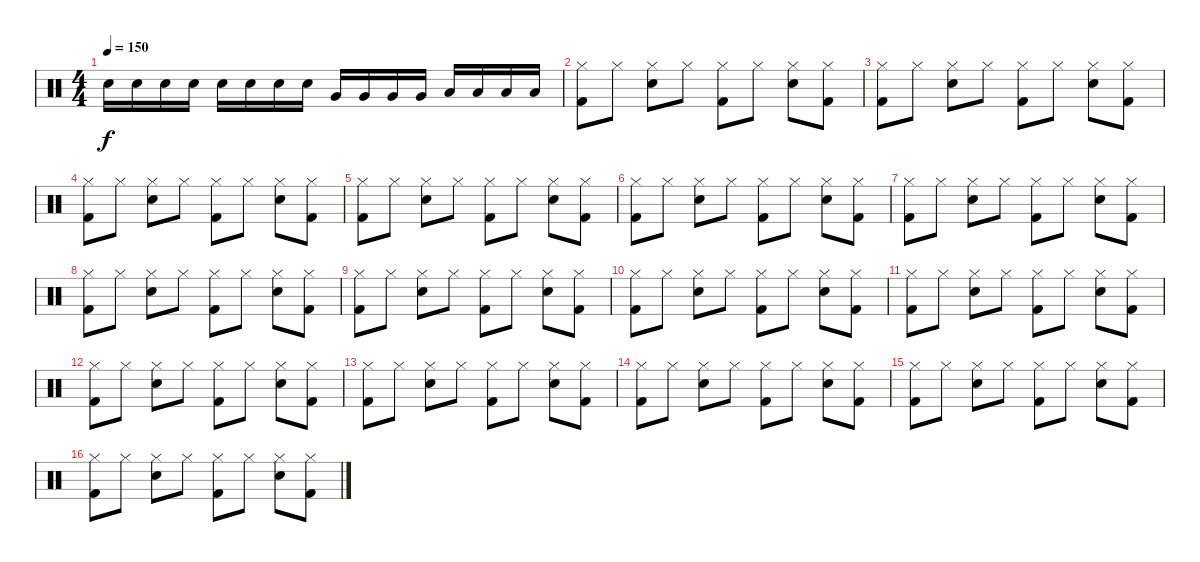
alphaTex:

\track "" {instrument percussion}
\staff {score}
\articulation defaults
\ts (4 4)
\tempo 150
\clef neutral
\ks c "Snare (hit) 2".16{dy f} "Snare (hit) 2".16 "Snare (hit) 2".16 "Snare (hit) 2".16 "Snare (hit) 2".16 "Snare (hit) 2".16 "Snare (hit) 2".16 "Snare (hit) 2".16 "Very Low Tom (hit)".16 "Very Low Tom (hit)".16 "Very Low Tom (hit)".16 "Very Low Tom (hit)".16 "Low Tom (hit)".16 "Low Tom (hit)".16 "Low Tom (hit)".16 "Low Tom (hit)".16
|
("Hi-Hat (closed)" "Kick (hit) 2").8 "Hi-Hat (closed)".8 ("Hi-Hat (closed)" "Snare (hit) 2").8 "Hi-Hat (closed)".8 ("Hi-Hat (closed)" "Kick (hit) 2").8 "Hi-Hat (closed)".8 ("Hi-Hat (closed)" "Snare (hit) 2").8 ("Hi-Hat (closed)" "Kick (hit) 2").8 |
("Hi-Hat (closed)" "Kick (hit) 2").8 "Hi-Hat (closed)".8 ("Hi-Hat (closed)" "Snare (hit) 2").8 "Hi-Hat (closed)".8 ("Hi-Hat (closed)" "Kick (hit) 2").8 "Hi-Hat (closed)".8 ("Hi-Hat (closed)" "Snare (hit) 2").8 ("Hi-Hat (closed)" "Kick (hit) 2").8 |
("Hi-Hat (closed)" "Kick (hit) 2").8 "Hi-Hat (closed)".8 ("Hi-Hat (closed)" "Snare (hit) 2").8 "Hi-Hat (closed)".8 ("Hi-Hat (closed)" "Kick (hit) 2").8 "Hi-Hat (closed)".8 ("Hi-Hat (closed)" "Snare (hit) 2").8 ("Hi-Hat (closed)" "Kick (hit) 2").8 |
("Hi-Hat (closed)" "Kick (hit) 2").8 "Hi-Hat (closed)".8 ("Hi-Hat (closed)" "Snare (hit) 2").8 "Hi-Hat (closed)".8 ("Hi-Hat (closed)" "Kick (hit) 2").8 "Hi-Hat (closed)".8 ("Hi-Hat (closed)" "Snare (hit) 2").8 ("Hi-Hat (closed)" "Kick (hit) 2").8 |
("Hi-Hat (closed)" "Kick (hit) 2").8 "Hi-Hat (closed)".8 ("Hi-Hat (closed)" "Snare (hit) 2").8 "Hi-Hat (closed)".8 ("Hi-Hat (closed)" "Kick (hit) 2").8 "Hi-Hat (closed)".8 ("Hi-Hat (closed)" "Snare (hit) 2").8 ("Hi-Hat (closed)" "Kick (hit) 2").8 |
("Hi-Hat (closed)" "Kick (hit) 2").8 "Hi-Hat (closed)".8 ("Hi-Hat (closed)" "Snare (hit) 2").8 "Hi-Hat (closed)".8 ("Hi-Hat (closed)" "Kick (hit) 2").8 "Hi-Hat (closed)".8 ("Hi-Hat (closed)" "Snare (hit) 2").8 ("Hi-Hat (closed)" "Kick (hit) 2").8 |
("Hi-Hat (closed)" "Kick (hit) 2").8 "Hi-Hat (closed)".8 ("Hi-Hat (closed)" "Snare (hit) 2").8 "Hi-Hat (closed)".8 ("Hi-Hat (closed)" "Kick (hit) 2").8 "Hi-Hat (closed)".8 ("Hi-Hat (closed)" "Snare (hit) 2").8 ("Hi-Hat (closed)" "Kick (hit) 2").8 |
("Hi-Hat (closed)" "Kick (hit) 2").8 "Hi-Hat (closed)".8 ("Hi-Hat (closed)" "Snare (hit) 2").8 "Hi-Hat (closed)".8 ("Hi-Hat (closed)" "Kick (hit) 2").8 "Hi-Hat (closed)".8 ("Hi-Hat (closed)" "Snare (hit) 2").8 ("Hi-Hat (closed)" "Kick (hit) 2").8 |
("Hi-Hat (closed)" "Kick (hit) 2").8 "Hi-Hat (closed)".8 ("Hi-Hat (closed)" "Snare (hit) 2").8 "Hi-Hat (closed)".8 ("Hi-Hat (closed)" "Kick (hit) 2").8 "Hi-Hat (closed)".8 ("Hi-Hat (closed)" "Snare (hit) 2").8 ("Hi-Hat (closed)" "Kick (hit) 2").8 |
("Hi-Hat (closed)" "Kick (hit) 2").8 "Hi-Hat (closed)".8 ("Hi-Hat (closed)" "Snare (hit) 2").8 "Hi-Hat (closed)".8 ("Hi-Hat (closed)" "Kick (hit) 2").8 "Hi-Hat (closed)".8 ("Hi-Hat (closed)" "Snare (hit) 2").8 ("Hi-Hat (closed)" "Kick (hit) 2").8 |
("Hi-Hat (closed)" "Kick (hit) 2").8 "Hi-Hat (closed)".8 ("Hi-Hat (closed)" "Snare (hit) 2").8 "Hi-Hat (closed)".8 ("Hi-Hat (closed)" "Kick (hit) 2").8 "Hi-Hat (closed)".8 ("Hi-Hat (closed)" "Snare (hit) 2").8 ("Hi-Hat (closed)" "Kick (hit) 2").8 |
("Hi-Hat (closed)" "Kick (hit) 2").8 "Hi-Hat (closed)".8 ("Hi-Hat (closed)" "Snare (hit) 2").8 "Hi-Hat (closed)".8 ("Hi-Hat (closed)" "Kick (hit) 2").8 "Hi-Hat (closed)".8 ("Hi-Hat (closed)" "Snare (hit) 2").8 ("Hi-Hat (closed)" "Kick (hit) 2").8 |
("Hi-Hat (closed)" "Kick (hit) 2").8 "Hi-Hat (closed)".8 ("Hi-Hat (closed)" "Snare (hit) 2").8 "Hi-Hat (closed)".8 ("Hi-Hat (closed)" "Kick (hit) 2").8 "Hi-Hat (closed)".8 ("Hi-Hat (closed)" "Snare (hit) 2").8 ("Hi-Hat (closed)" "Kick (hit) 2").8 |
("Hi-Hat (closed)" "Kick (hit) 2").8 "Hi-Hat (closed)".8 ("Hi-Hat (closed)" "Snare (hit) 2").8 "Hi-Hat (closed)".8 ("Hi-Hat (closed)" "Kick (hit) 2").8 "Hi-Hat (closed)".8 ("Hi-Hat (closed)" "Snare (hit) 2").8 ("Hi-Hat (closed)" "Kick (hit) 2").8 |
("Hi-Hat (closed)" "Kick (hit) 2").8 "Hi-Hat (closed)".8 ("Hi-Hat (closed)" "Snare (hit) 2").8 "Hi-Hat (closed)".8 ("Hi-Hat (closed)" "Kick (hit) 2").8 "Hi-Hat (closed)".8 ("Hi-Hat (closed)" "Snare (hit) 2").8 ("Hi-Hat (closed)" "Kick (hit) 2").8
